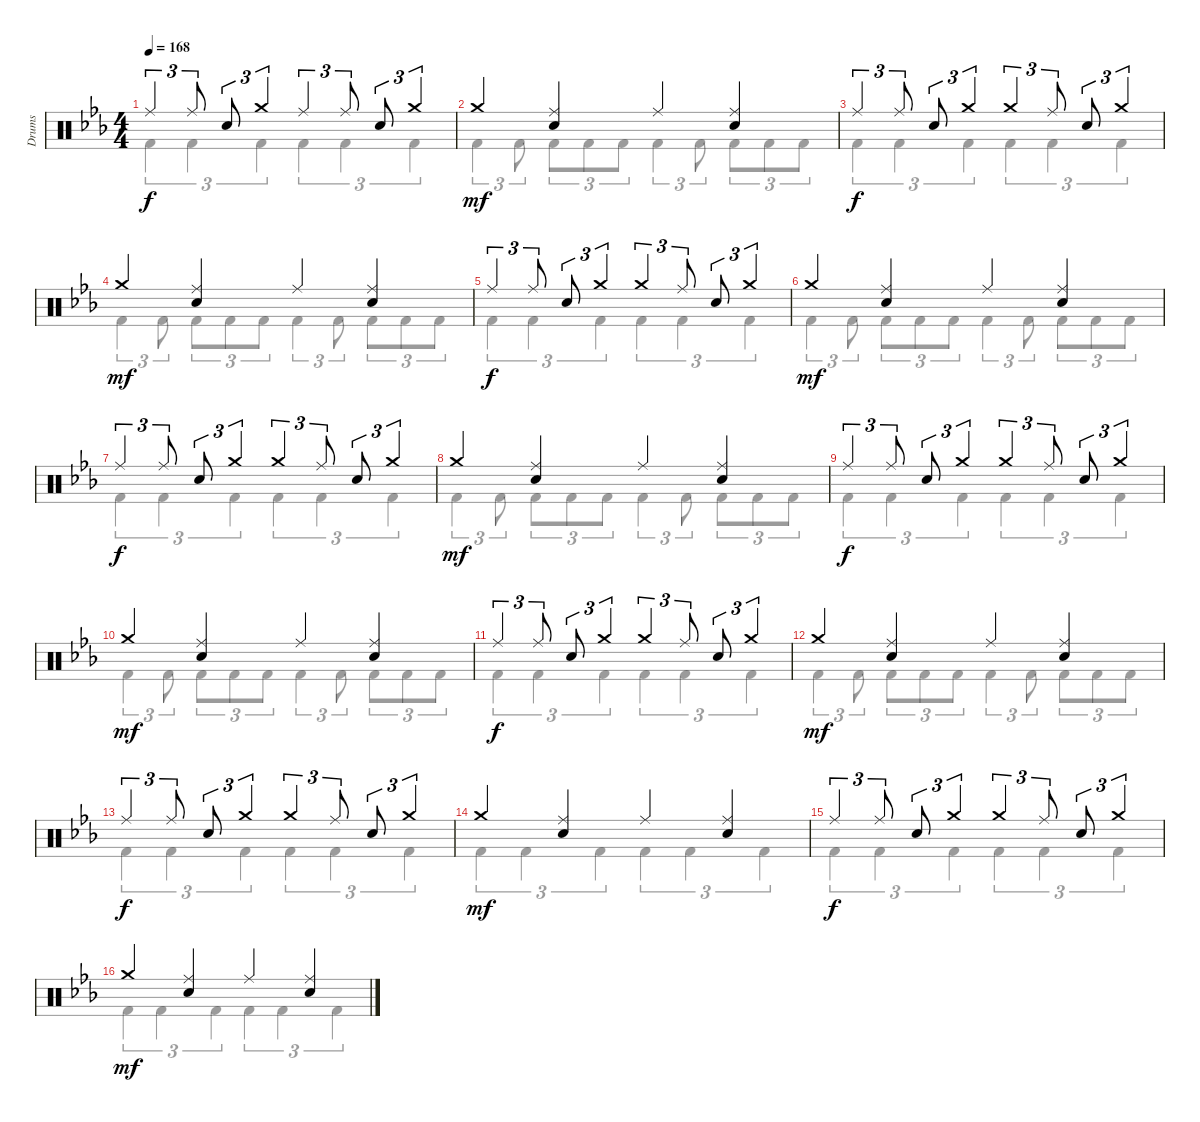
\defaultSystemsLayout 4
\bracketExtendMode groupsimilarinstruments
\otherSystemsTrackNameOrientation horizontal
\track ("Drums" "Drums") {instrument percussion}
\staff {score}
\articulation defaults
\voice
\ts (4 4)
\tempo 168
\clef neutral
\ks eb "Ride (middle)"{acc forcenatural}.4{tu (3 2) dy f beam Up} "Ride (middle)"{acc forcenatural}.8{tu (3 2) beam Up} "Snare (hit) 2"{acc forcenatural}.8{tu (3 2) beam Up} "Crash medium (hit)"{acc forcenatural}.4{tu (3 2) beam Up} "Ride (middle)"{acc forcenatural}.4{tu (3 2) beam Up} "Ride (middle)"{acc forcenatural}.8{tu (3 2) beam Up} "Snare (hit) 2"{acc forcenatural}.8{tu (3 2) beam Up} "Crash medium (hit)"{acc forcenatural}.4{tu (3 2) beam Up}
|
"Crash medium (hit)"{acc forcenatural}.4{dy mf beam Up} ("Ride (middle)"{acc forcenatural} "Snare (hit) 2"{acc forcenatural}).4{beam Up} "Ride (middle)"{acc forcenatural}.4{beam Up} ("Ride (middle)"{acc forcenatural} "Snare (hit) 2"{acc forcenatural}).4{beam Up} |
"Ride (middle)"{acc forcenatural}.4{tu (3 2) dy f beam Up} "Ride (middle)"{acc forcenatural}.8{tu (3 2) beam Up} "Snare (hit) 2"{acc forcenatural}.8{tu (3 2) beam Up} "Crash medium (hit)"{acc forcenatural}.4{tu (3 2) beam Up} "Crash medium (hit)"{acc forcenatural}.4{tu (3 2) beam Up} "Ride (middle)"{acc forcenatural}.8{tu (3 2) beam Up} "Snare (hit) 2"{acc forcenatural}.8{tu (3 2) beam Up} "Crash medium (hit)"{acc forcenatural}.4{tu (3 2) beam Up} |
"Crash medium (hit)"{acc forcenatural}.4{dy mf beam Up} ("Ride (middle)"{acc forcenatural} "Snare (hit) 2"{acc forcenatural}).4{beam Up} "Ride (middle)"{acc forcenatural}.4{beam Up} ("Ride (middle)"{acc forcenatural} "Snare (hit) 2"{acc forcenatural}).4{beam Up} |
"Ride (middle)"{acc forcenatural}.4{tu (3 2) dy f beam Up} "Ride (middle)"{acc forcenatural}.8{tu (3 2) beam Up} "Snare (hit) 2"{acc forcenatural}.8{tu (3 2) beam Up} "Crash medium (hit)"{acc forcenatural}.4{tu (3 2) beam Up} "Crash medium (hit)"{acc forcenatural}.4{tu (3 2) beam Up} "Ride (middle)"{acc forcenatural}.8{tu (3 2) beam Up} "Snare (hit) 2"{acc forcenatural}.8{tu (3 2) beam Up} "Crash medium (hit)"{acc forcenatural}.4{tu (3 2) beam Up} |
"Crash medium (hit)"{acc forcenatural}.4{dy mf beam Up} ("Ride (middle)"{acc forcenatural} "Snare (hit) 2"{acc forcenatural}).4{beam Up} "Ride (middle)"{acc forcenatural}.4{beam Up} ("Ride (middle)"{acc forcenatural} "Snare (hit) 2"{acc forcenatural}).4{beam Up} |
"Ride (middle)"{acc forcenatural}.4{tu (3 2) dy f beam Up} "Ride (middle)"{acc forcenatural}.8{tu (3 2) beam Up} "Snare (hit) 2"{acc forcenatural}.8{tu (3 2) beam Up} "Crash medium (hit)"{acc forcenatural}.4{tu (3 2) beam Up} "Crash medium (hit)"{acc forcenatural}.4{tu (3 2) beam Up} "Ride (middle)"{acc forcenatural}.8{tu (3 2) beam Up} "Snare (hit) 2"{acc forcenatural}.8{tu (3 2) beam Up} "Crash medium (hit)"{acc forcenatural}.4{tu (3 2) beam Up} |
"Crash medium (hit)"{acc forcenatural}.4{dy mf beam Up} ("Ride (middle)"{acc forcenatural} "Snare (hit) 2"{acc forcenatural}).4{beam Up} "Ride (middle)"{acc forcenatural}.4{beam Up} ("Ride (middle)"{acc forcenatural} "Snare (hit) 2"{acc forcenatural}).4{beam Up} |
"Ride (middle)"{acc forcenatural}.4{tu (3 2) dy f beam Up} "Ride (middle)"{acc forcenatural}.8{tu (3 2) beam Up} "Snare (hit) 2"{acc forcenatural}.8{tu (3 2) beam Up} "Crash medium (hit)"{acc forcenatural}.4{tu (3 2) beam Up} "Crash medium (hit)"{acc forcenatural}.4{tu (3 2) beam Up} "Ride (middle)"{acc forcenatural}.8{tu (3 2) beam Up} "Snare (hit) 2"{acc forcenatural}.8{tu (3 2) beam Up} "Crash medium (hit)"{acc forcenatural}.4{tu (3 2) beam Up} |
"Crash medium (hit)"{acc forcenatural}.4{dy mf beam Up} ("Ride (middle)"{acc forcenatural} "Snare (hit) 2"{acc forcenatural}).4{beam Up} "Ride (middle)"{acc forcenatural}.4{beam Up} ("Ride (middle)"{acc forcenatural} "Snare (hit) 2"{acc forcenatural}).4{beam Up} |
"Ride (middle)"{acc forcenatural}.4{tu (3 2) dy f beam Up} "Ride (middle)"{acc forcenatural}.8{tu (3 2) beam Up} "Snare (hit) 2"{acc forcenatural}.8{tu (3 2) beam Up} "Crash medium (hit)"{acc forcenatural}.4{tu (3 2) beam Up} "Crash medium (hit)"{acc forcenatural}.4{tu (3 2) beam Up} "Ride (middle)"{acc forcenatural}.8{tu (3 2) beam Up} "Snare (hit) 2"{acc forcenatural}.8{tu (3 2) beam Up} "Crash medium (hit)"{acc forcenatural}.4{tu (3 2) beam Up} |
"Crash medium (hit)"{acc forcenatural}.4{dy mf beam Up} ("Ride (middle)"{acc forcenatural} "Snare (hit) 2"{acc forcenatural}).4{beam Up} "Ride (middle)"{acc forcenatural}.4{beam Up} ("Ride (middle)"{acc forcenatural} "Snare (hit) 2"{acc forcenatural}).4{beam Up} |
"Ride (middle)"{acc forcenatural}.4{tu (3 2) dy f beam Up} "Ride (middle)"{acc forcenatural}.8{tu (3 2) beam Up} "Snare (hit) 2"{acc forcenatural}.8{tu (3 2) beam Up} "Crash medium (hit)"{acc forcenatural}.4{tu (3 2) beam Up} "Crash medium (hit)"{acc forcenatural}.4{tu (3 2) beam Up} "Ride (middle)"{acc forcenatural}.8{tu (3 2) beam Up} "Snare (hit) 2"{acc forcenatural}.8{tu (3 2) beam Up} "Crash medium (hit)"{acc forcenatural}.4{tu (3 2) beam Up} |
"Crash medium (hit)"{acc forcenatural}.4{dy mf beam Up} ("Ride (middle)"{acc forcenatural} "Snare (hit) 2"{acc forcenatural}).4{beam Up} "Ride (middle)"{acc forcenatural}.4{beam Up} ("Ride (middle)"{acc forcenatural} "Snare (hit) 2"{acc forcenatural}).4{beam Up} |
"Ride (middle)"{acc forcenatural}.4{tu (3 2) dy f beam Up} "Ride (middle)"{acc forcenatural}.8{tu (3 2) beam Up} "Snare (hit) 2"{acc forcenatural}.8{tu (3 2) beam Up} "Crash medium (hit)"{acc forcenatural}.4{tu (3 2) beam Up} "Crash medium (hit)"{acc forcenatural}.4{tu (3 2) beam Up} "Ride (middle)"{acc forcenatural}.8{tu (3 2) beam Up} "Snare (hit) 2"{acc forcenatural}.8{tu (3 2) beam Up} "Crash medium (hit)"{acc forcenatural}.4{tu (3 2) beam Up} |
"Crash medium (hit)"{acc forcenatural}.4{dy mf beam Up} ("Ride (middle)"{acc forcenatural} "Snare (hit) 2"{acc forcenatural}).4{beam Up} "Ride (middle)"{acc forcenatural}.4{beam Up} ("Ride (middle)"{acc forcenatural} "Snare (hit) 2"{acc forcenatural}).4{beam Up}
\voice
\clef neutral
\ottava regular
\simile none
\ks eb "Kick (hit) 2"{acc forcenatural}.4{tu (3 2) dy f beam Down} "Kick (hit) 2"{acc forcenatural}.4{tu (3 2) beam Down} "Kick (hit) 2"{acc forcenatural}.4{tu (3 2) beam Down} "Kick (hit) 2"{acc forcenatural}.4{tu (3 2) beam Down} "Kick (hit) 2"{acc forcenatural}.4{tu (3 2) beam Down} "Kick (hit) 2"{acc forcenatural}.4{tu (3 2) beam Down}
|
"Kick (hit) 2"{acc forcenatural}.4{tu (3 2) beam Down} "Kick (hit) 2"{acc forcenatural}.8{tu (3 2) beam Down} "Kick (hit) 2"{acc forcenatural}.8{tu (3 2) beam Down} "Kick (hit) 2"{acc forcenatural}.8{tu (3 2) beam Down} "Kick (hit) 2"{acc forcenatural}.8{tu (3 2) beam Down} "Kick (hit) 2"{acc forcenatural}.4{tu (3 2) beam Down} "Kick (hit) 2"{acc forcenatural}.8{tu (3 2) beam Down} "Kick (hit) 2"{acc forcenatural}.8{tu (3 2) beam Down} "Kick (hit) 2"{acc forcenatural}.8{tu (3 2) beam Down} "Kick (hit) 2"{acc forcenatural}.8{tu (3 2) beam Down} |
"Kick (hit) 2"{acc forcenatural}.4{tu (3 2) beam Down} "Kick (hit) 2"{acc forcenatural}.4{tu (3 2) beam Down} "Kick (hit) 2"{acc forcenatural}.4{tu (3 2) beam Down} "Kick (hit) 2"{acc forcenatural}.4{tu (3 2) beam Down} "Kick (hit) 2"{acc forcenatural}.4{tu (3 2) beam Down} "Kick (hit) 2"{acc forcenatural}.4{tu (3 2) beam Down} |
"Kick (hit) 2"{acc forcenatural}.4{tu (3 2) beam Down} "Kick (hit) 2"{acc forcenatural}.8{tu (3 2) beam Down} "Kick (hit) 2"{acc forcenatural}.8{tu (3 2) beam Down} "Kick (hit) 2"{acc forcenatural}.8{tu (3 2) beam Down} "Kick (hit) 2"{acc forcenatural}.8{tu (3 2) beam Down} "Kick (hit) 2"{acc forcenatural}.4{tu (3 2) beam Down} "Kick (hit) 2"{acc forcenatural}.8{tu (3 2) beam Down} "Kick (hit) 2"{acc forcenatural}.8{tu (3 2) beam Down} "Kick (hit) 2"{acc forcenatural}.8{tu (3 2) beam Down} "Kick (hit) 2"{acc forcenatural}.8{tu (3 2) beam Down} |
"Kick (hit) 2"{acc forcenatural}.4{tu (3 2) beam Down} "Kick (hit) 2"{acc forcenatural}.4{tu (3 2) beam Down} "Kick (hit) 2"{acc forcenatural}.4{tu (3 2) beam Down} "Kick (hit) 2"{acc forcenatural}.4{tu (3 2) beam Down} "Kick (hit) 2"{acc forcenatural}.4{tu (3 2) beam Down} "Kick (hit) 2"{acc forcenatural}.4{tu (3 2) beam Down} |
"Kick (hit) 2"{acc forcenatural}.4{tu (3 2) beam Down} "Kick (hit) 2"{acc forcenatural}.8{tu (3 2) beam Down} "Kick (hit) 2"{acc forcenatural}.8{tu (3 2) beam Down} "Kick (hit) 2"{acc forcenatural}.8{tu (3 2) beam Down} "Kick (hit) 2"{acc forcenatural}.8{tu (3 2) beam Down} "Kick (hit) 2"{acc forcenatural}.4{tu (3 2) beam Down} "Kick (hit) 2"{acc forcenatural}.8{tu (3 2) beam Down} "Kick (hit) 2"{acc forcenatural}.8{tu (3 2) beam Down} "Kick (hit) 2"{acc forcenatural}.8{tu (3 2) beam Down} "Kick (hit) 2"{acc forcenatural}.8{tu (3 2) beam Down} |
"Kick (hit) 2"{acc forcenatural}.4{tu (3 2) beam Down} "Kick (hit) 2"{acc forcenatural}.4{tu (3 2) beam Down} "Kick (hit) 2"{acc forcenatural}.4{tu (3 2) beam Down} "Kick (hit) 2"{acc forcenatural}.4{tu (3 2) beam Down} "Kick (hit) 2"{acc forcenatural}.4{tu (3 2) beam Down} "Kick (hit) 2"{acc forcenatural}.4{tu (3 2) beam Down} |
"Kick (hit) 2"{acc forcenatural}.4{tu (3 2) beam Down} "Kick (hit) 2"{acc forcenatural}.8{tu (3 2) beam Down} "Kick (hit) 2"{acc forcenatural}.8{tu (3 2) beam Down} "Kick (hit) 2"{acc forcenatural}.8{tu (3 2) beam Down} "Kick (hit) 2"{acc forcenatural}.8{tu (3 2) beam Down} "Kick (hit) 2"{acc forcenatural}.4{tu (3 2) beam Down} "Kick (hit) 2"{acc forcenatural}.8{tu (3 2) beam Down} "Kick (hit) 2"{acc forcenatural}.8{tu (3 2) beam Down} "Kick (hit) 2"{acc forcenatural}.8{tu (3 2) beam Down} "Kick (hit) 2"{acc forcenatural}.8{tu (3 2) beam Down} |
"Kick (hit) 2"{acc forcenatural}.4{tu (3 2) beam Down} "Kick (hit) 2"{acc forcenatural}.4{tu (3 2) beam Down} "Kick (hit) 2"{acc forcenatural}.4{tu (3 2) beam Down} "Kick (hit) 2"{acc forcenatural}.4{tu (3 2) beam Down} "Kick (hit) 2"{acc forcenatural}.4{tu (3 2) beam Down} "Kick (hit) 2"{acc forcenatural}.4{tu (3 2) beam Down} |
"Kick (hit) 2"{acc forcenatural}.4{tu (3 2) beam Down} "Kick (hit) 2"{acc forcenatural}.8{tu (3 2) beam Down} "Kick (hit) 2"{acc forcenatural}.8{tu (3 2) beam Down} "Kick (hit) 2"{acc forcenatural}.8{tu (3 2) beam Down} "Kick (hit) 2"{acc forcenatural}.8{tu (3 2) beam Down} "Kick (hit) 2"{acc forcenatural}.4{tu (3 2) beam Down} "Kick (hit) 2"{acc forcenatural}.8{tu (3 2) beam Down} "Kick (hit) 2"{acc forcenatural}.8{tu (3 2) beam Down} "Kick (hit) 2"{acc forcenatural}.8{tu (3 2) beam Down} "Kick (hit) 2"{acc forcenatural}.8{tu (3 2) beam Down} |
"Kick (hit) 2"{acc forcenatural}.4{tu (3 2) beam Down} "Kick (hit) 2"{acc forcenatural}.4{tu (3 2) beam Down} "Kick (hit) 2"{acc forcenatural}.4{tu (3 2) beam Down} "Kick (hit) 2"{acc forcenatural}.4{tu (3 2) beam Down} "Kick (hit) 2"{acc forcenatural}.4{tu (3 2) beam Down} "Kick (hit) 2"{acc forcenatural}.4{tu (3 2) beam Down} |
"Kick (hit) 2"{acc forcenatural}.4{tu (3 2) beam Down} "Kick (hit) 2"{acc forcenatural}.8{tu (3 2) beam Down} "Kick (hit) 2"{acc forcenatural}.8{tu (3 2) beam Down} "Kick (hit) 2"{acc forcenatural}.8{tu (3 2) beam Down} "Kick (hit) 2"{acc forcenatural}.8{tu (3 2) beam Down} "Kick (hit) 2"{acc forcenatural}.4{tu (3 2) beam Down} "Kick (hit) 2"{acc forcenatural}.8{tu (3 2) beam Down} "Kick (hit) 2"{acc forcenatural}.8{tu (3 2) beam Down} "Kick (hit) 2"{acc forcenatural}.8{tu (3 2) beam Down} "Kick (hit) 2"{acc forcenatural}.8{tu (3 2) beam Down} |
"Kick (hit) 2"{acc forcenatural}.4{tu (3 2) beam Down} "Kick (hit) 2"{acc forcenatural}.4{tu (3 2) beam Down} "Kick (hit) 2"{acc forcenatural}.4{tu (3 2) beam Down} "Kick (hit) 2"{acc forcenatural}.4{tu (3 2) beam Down} "Kick (hit) 2"{acc forcenatural}.4{tu (3 2) beam Down} "Kick (hit) 2"{acc forcenatural}.4{tu (3 2) beam Down} |
"Kick (hit) 2"{acc forcenatural}.4{tu (3 2) beam Down} "Kick (hit) 2"{acc forcenatural}.4{tu (3 2) beam Down} "Kick (hit) 2"{acc forcenatural}.4{tu (3 2) beam Down} "Kick (hit) 2"{acc forcenatural}.4{tu (3 2) beam Down} "Kick (hit) 2"{acc forcenatural}.4{tu (3 2) beam Down} "Kick (hit) 2"{acc forcenatural}.4{tu (3 2) beam Down} |
"Kick (hit) 2"{acc forcenatural}.4{tu (3 2) beam Down} "Kick (hit) 2"{acc forcenatural}.4{tu (3 2) beam Down} "Kick (hit) 2"{acc forcenatural}.4{tu (3 2) beam Down} "Kick (hit) 2"{acc forcenatural}.4{tu (3 2) beam Down} "Kick (hit) 2"{acc forcenatural}.4{tu (3 2) beam Down} "Kick (hit) 2"{acc forcenatural}.4{tu (3 2) beam Down} |
"Kick (hit) 2"{acc forcenatural}.4{tu (3 2) beam Down} "Kick (hit) 2"{acc forcenatural}.4{tu (3 2) beam Down} "Kick (hit) 2"{acc forcenatural}.4{tu (3 2) beam Down} "Kick (hit) 2"{acc forcenatural}.4{tu (3 2) beam Down} "Kick (hit) 2"{acc forcenatural}.4{tu (3 2) beam Down} "Kick (hit) 2"{acc forcenatural}.4{tu (3 2) beam Down}
